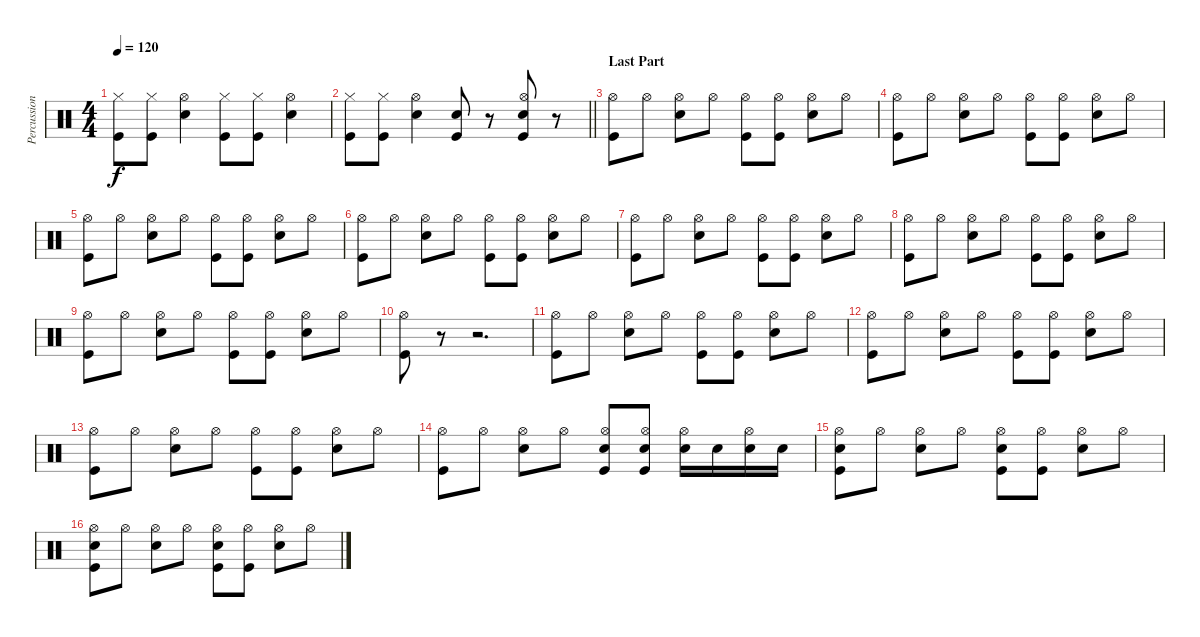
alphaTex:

\track ("Percussions" "Percussion") {instrument percussion}
\staff {score}
\articulation defaults
\ts (4 4)
\tempo 120
\clef neutral
\ks c
("Hi-Hat (closed)" "Kick (hit)").8{dy f} ("Hi-Hat (closed)" "Kick (hit)").8 ("Hi-Hat (open)" "Electric Snare (hit)").4 ("Hi-Hat (closed)" "Kick (hit)").8 ("Hi-Hat (closed)" "Kick (hit)").8 ("Hi-Hat (open)" "Electric Snare (hit)").4 |
\barLineRight lightlight
("Hi-Hat (closed)" "Kick (hit)").8 ("Hi-Hat (closed)" "Kick (hit)").8 ("Hi-Hat (open)" "Electric Snare (hit)").4 ("Electric Snare (hit)" "Kick (hit)").8 r.8 ("Hi-Hat (open)" "Electric Snare (hit)" "Kick (hit)").8 r.8 |
\section ("" "Last Part")
("Hi-Hat (open)" "Kick (hit)").8 "Hi-Hat (open)".8 ("Hi-Hat (open)" "Electric Snare (hit)").8 "Hi-Hat (open)".8 ("Hi-Hat (open)" "Kick (hit)").8 ("Hi-Hat (open)" "Kick (hit)").8 ("Hi-Hat (open)" "Electric Snare (hit)").8 "Hi-Hat (open)".8 |
("Hi-Hat (open)" "Kick (hit)").8 "Hi-Hat (open)".8 ("Hi-Hat (open)" "Electric Snare (hit)").8 "Hi-Hat (open)".8 ("Hi-Hat (open)" "Kick (hit)").8 ("Hi-Hat (open)" "Kick (hit)").8 ("Hi-Hat (open)" "Electric Snare (hit)").8 "Hi-Hat (open)".8 |
("Hi-Hat (open)" "Kick (hit)").8 "Hi-Hat (open)".8 ("Hi-Hat (open)" "Electric Snare (hit)").8 "Hi-Hat (open)".8 ("Hi-Hat (open)" "Kick (hit)").8 ("Hi-Hat (open)" "Kick (hit)").8 ("Hi-Hat (open)" "Electric Snare (hit)").8 "Hi-Hat (open)".8 |
("Hi-Hat (open)" "Kick (hit)").8 "Hi-Hat (open)".8 ("Hi-Hat (open)" "Electric Snare (hit)").8 "Hi-Hat (open)".8 ("Hi-Hat (open)" "Kick (hit)").8 ("Hi-Hat (open)" "Kick (hit)").8 ("Hi-Hat (open)" "Electric Snare (hit)").8 "Hi-Hat (open)".8 |
("Hi-Hat (open)" "Kick (hit)").8 "Hi-Hat (open)".8 ("Hi-Hat (open)" "Electric Snare (hit)").8 "Hi-Hat (open)".8 ("Hi-Hat (open)" "Kick (hit)").8 ("Hi-Hat (open)" "Kick (hit)").8 ("Hi-Hat (open)" "Electric Snare (hit)").8 "Hi-Hat (open)".8 |
("Hi-Hat (open)" "Kick (hit)").8 "Hi-Hat (open)".8 ("Hi-Hat (open)" "Electric Snare (hit)").8 "Hi-Hat (open)".8 ("Hi-Hat (open)" "Kick (hit)").8 ("Hi-Hat (open)" "Kick (hit)").8 ("Hi-Hat (open)" "Electric Snare (hit)").8 "Hi-Hat (open)".8 |
("Hi-Hat (open)" "Kick (hit)").8 "Hi-Hat (open)".8 ("Hi-Hat (open)" "Electric Snare (hit)").8 "Hi-Hat (open)".8 ("Hi-Hat (open)" "Kick (hit)").8 ("Hi-Hat (open)" "Kick (hit)").8 ("Hi-Hat (open)" "Electric Snare (hit)").8 "Hi-Hat (open)".8 |
("Hi-Hat (open)" "Kick (hit)").8 r.8 r.2{d} |
("Hi-Hat (open)" "Kick (hit)").8 "Hi-Hat (open)".8 ("Hi-Hat (open)" "Electric Snare (hit)").8 "Hi-Hat (open)".8 ("Hi-Hat (open)" "Kick (hit)").8 ("Hi-Hat (open)" "Kick (hit)").8 ("Hi-Hat (open)" "Electric Snare (hit)").8 "Hi-Hat (open)".8 |
("Hi-Hat (open)" "Kick (hit)").8 "Hi-Hat (open)".8 ("Hi-Hat (open)" "Electric Snare (hit)").8 "Hi-Hat (open)".8 ("Hi-Hat (open)" "Kick (hit)").8 ("Hi-Hat (open)" "Kick (hit)").8 ("Hi-Hat (open)" "Electric Snare (hit)").8 "Hi-Hat (open)".8 |
("Hi-Hat (open)" "Kick (hit)").8 "Hi-Hat (open)".8 ("Hi-Hat (open)" "Electric Snare (hit)").8 "Hi-Hat (open)".8 ("Hi-Hat (open)" "Kick (hit)").8 ("Hi-Hat (open)" "Kick (hit)").8 ("Hi-Hat (open)" "Electric Snare (hit)").8 "Hi-Hat (open)".8 |
("Hi-Hat (open)" "Kick (hit)").8 "Hi-Hat (open)".8 ("Hi-Hat (open)" "Electric Snare (hit)").8 "Hi-Hat (open)".8 ("Hi-Hat (open)" "Electric Snare (hit)" "Kick (hit)").8 ("Hi-Hat (open)" "Electric Snare (hit)" "Kick (hit)").8 ("Hi-Hat (open)" "Electric Snare (hit)").16 "Electric Snare (hit)".16 ("Hi-Hat (open)" "Electric Snare (hit)").16 "Electric Snare (hit)".16 |
("Hi-Hat (open)" "Electric Snare (hit)" "Kick (hit)").8 "Hi-Hat (open)".8 ("Hi-Hat (open)" "Electric Snare (hit)").8 "Hi-Hat (open)".8 ("Hi-Hat (open)" "Electric Snare (hit)" "Kick (hit)").8 ("Hi-Hat (open)" "Kick (hit)").8 ("Hi-Hat (open)" "Electric Snare (hit)").8 "Hi-Hat (open)".8 |
("Hi-Hat (open)" "Electric Snare (hit)" "Kick (hit)").8 "Hi-Hat (open)".8 ("Hi-Hat (open)" "Electric Snare (hit)").8 "Hi-Hat (open)".8 ("Hi-Hat (open)" "Electric Snare (hit)" "Kick (hit)").8 ("Hi-Hat (open)" "Kick (hit)").8 ("Hi-Hat (open)" "Electric Snare (hit)").8 "Hi-Hat (open)".8
